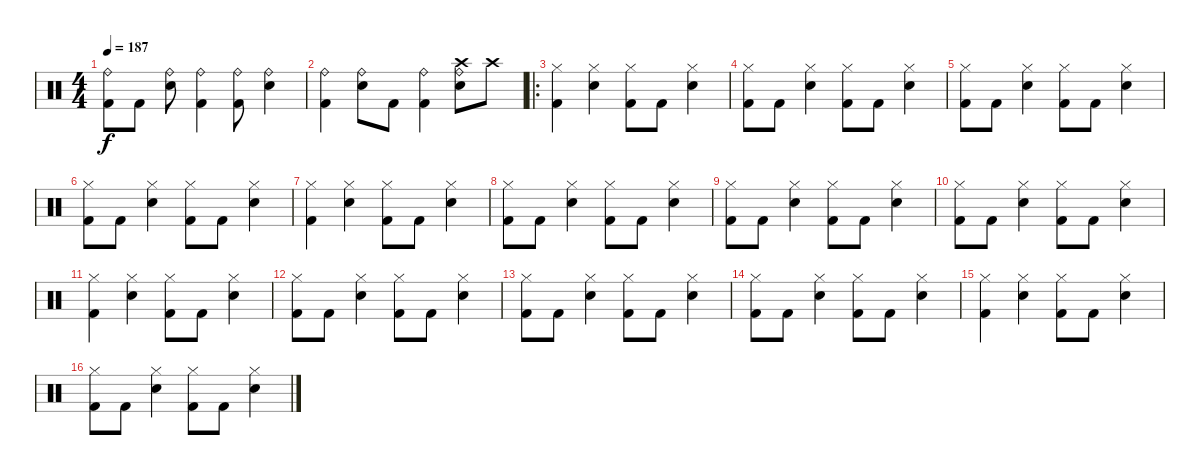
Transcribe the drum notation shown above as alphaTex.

\track "" {instrument percussion}
\staff {score}
\articulation defaults
\ts (4 4)
\tempo 187
\clef neutral
\ks c
("Ride (bell)" "Kick (hit) 2").8{dy f} "Kick (hit) 2".8 ("Ride (bell)" "Electric Snare (hit)").8 ("Ride (bell)" "Kick (hit) 2").4 ("Ride (bell)" "Kick (hit) 2").8 ("Ride (bell)" "Electric Snare (hit)").4 |
("Ride (bell)" "Kick (hit) 2").4 ("Ride (bell)" "Electric Snare (hit)").8 "Kick (hit) 2".8 ("Ride (bell)" "Kick (hit) 2").4 ("Ride (bell)" "Crash high (hit)" "Electric Snare (hit)").8 "Crash high (hit)".8 |
\ro
("Hi-Hat (closed)" "Kick (hit) 2").4 ("Hi-Hat (closed)" "Electric Snare (hit)").4 ("Hi-Hat (closed)" "Kick (hit) 2").8 "Kick (hit) 2".8 ("Hi-Hat (closed)" "Electric Snare (hit)").4 |
("Hi-Hat (closed)" "Kick (hit) 2").8 "Kick (hit) 2".8 ("Hi-Hat (closed)" "Electric Snare (hit)").4 ("Hi-Hat (closed)" "Kick (hit) 2").8 "Kick (hit) 2".8 ("Hi-Hat (closed)" "Electric Snare (hit)").4 |
("Hi-Hat (closed)" "Kick (hit) 2").8 "Kick (hit) 2".8 ("Hi-Hat (closed)" "Electric Snare (hit)").4 ("Hi-Hat (closed)" "Kick (hit) 2").8 "Kick (hit) 2".8 ("Hi-Hat (closed)" "Electric Snare (hit)").4 |
("Hi-Hat (closed)" "Kick (hit) 2").8 "Kick (hit) 2".8 ("Hi-Hat (closed)" "Electric Snare (hit)").4 ("Hi-Hat (closed)" "Kick (hit) 2").8 "Kick (hit) 2".8 ("Hi-Hat (closed)" "Electric Snare (hit)").4 |
("Hi-Hat (closed)" "Kick (hit) 2").4 ("Hi-Hat (closed)" "Electric Snare (hit)").4 ("Hi-Hat (closed)" "Kick (hit) 2").8 "Kick (hit) 2".8 ("Hi-Hat (closed)" "Electric Snare (hit)").4 |
("Hi-Hat (closed)" "Kick (hit) 2").8 "Kick (hit) 2".8 ("Hi-Hat (closed)" "Electric Snare (hit)").4 ("Hi-Hat (closed)" "Kick (hit) 2").8 "Kick (hit) 2".8 ("Hi-Hat (closed)" "Electric Snare (hit)").4 |
("Hi-Hat (closed)" "Kick (hit) 2").8 "Kick (hit) 2".8 ("Hi-Hat (closed)" "Electric Snare (hit)").4 ("Hi-Hat (closed)" "Kick (hit) 2").8 "Kick (hit) 2".8 ("Hi-Hat (closed)" "Electric Snare (hit)").4 |
("Hi-Hat (closed)" "Kick (hit) 2").8 "Kick (hit) 2".8 ("Hi-Hat (closed)" "Electric Snare (hit)").4 ("Hi-Hat (closed)" "Kick (hit) 2").8 "Kick (hit) 2".8 ("Hi-Hat (closed)" "Electric Snare (hit)").4 |
("Hi-Hat (closed)" "Kick (hit) 2").4 ("Hi-Hat (closed)" "Electric Snare (hit)").4 ("Hi-Hat (closed)" "Kick (hit) 2").8 "Kick (hit) 2".8 ("Hi-Hat (closed)" "Electric Snare (hit)").4 |
("Hi-Hat (closed)" "Kick (hit) 2").8 "Kick (hit) 2".8 ("Hi-Hat (closed)" "Electric Snare (hit)").4 ("Hi-Hat (closed)" "Kick (hit) 2").8 "Kick (hit) 2".8 ("Hi-Hat (closed)" "Electric Snare (hit)").4 |
("Hi-Hat (closed)" "Kick (hit) 2").8 "Kick (hit) 2".8 ("Hi-Hat (closed)" "Electric Snare (hit)").4 ("Hi-Hat (closed)" "Kick (hit) 2").8 "Kick (hit) 2".8 ("Hi-Hat (closed)" "Electric Snare (hit)").4 |
("Hi-Hat (closed)" "Kick (hit) 2").8 "Kick (hit) 2".8 ("Hi-Hat (closed)" "Electric Snare (hit)").4 ("Hi-Hat (closed)" "Kick (hit) 2").8 "Kick (hit) 2".8 ("Hi-Hat (closed)" "Electric Snare (hit)").4 |
("Hi-Hat (closed)" "Kick (hit) 2").4 ("Hi-Hat (closed)" "Electric Snare (hit)").4 ("Hi-Hat (closed)" "Kick (hit) 2").8 "Kick (hit) 2".8 ("Hi-Hat (closed)" "Electric Snare (hit)").4 |
("Hi-Hat (closed)" "Kick (hit) 2").8 "Kick (hit) 2".8 ("Hi-Hat (closed)" "Electric Snare (hit)").4 ("Hi-Hat (closed)" "Kick (hit) 2").8 "Kick (hit) 2".8 ("Hi-Hat (closed)" "Electric Snare (hit)").4
